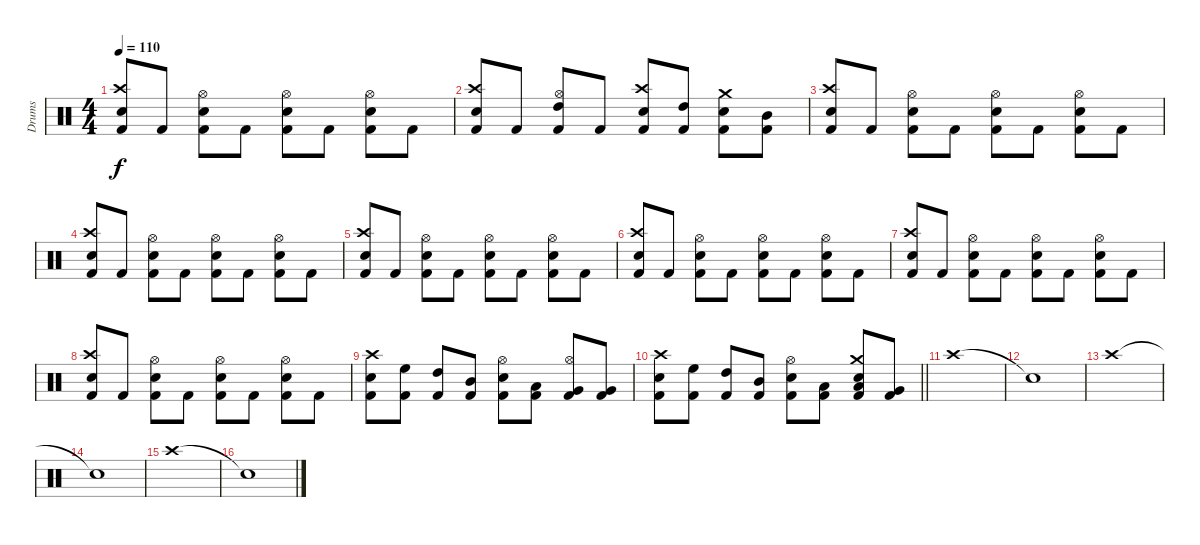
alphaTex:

\track ("Drums" "Drums") {instrument percussion}
\staff {score}
\articulation defaults
\ts (4 4)
\tempo 110
\clef neutral
\ks c
("Kick (hit) 2" "Crash high (hit)" "Snare (hit) 2").8{dy f} "Kick (hit) 2".8 ("Kick (hit) 2" "Hi-Hat (open)" "Snare (hit) 2").8 "Kick (hit) 2".8 ("Kick (hit) 2" "Hi-Hat (open)" "Snare (hit) 2").8 "Kick (hit) 2".8 ("Kick (hit) 2" "Hi-Hat (open)" "Snare (hit) 2").8 "Kick (hit) 2".8 |
("Kick (hit) 2" "Crash high (hit)" "Snare (hit) 2").8 "Kick (hit) 2".8 ("Kick (hit) 2" "Hi-Hat (open)" "High Tom (hit)").8 "Kick (hit) 2".8 ("Kick (hit) 2" "Crash high (hit)" "Snare (hit) 2").8 ("Kick (hit) 2" "High Tom (hit)").8 ("Kick (hit) 2" "Crash medium (hit)" "Snare (hit) 2").8 ("Kick (hit) 2" "Mid Tom (hit)").8 |
("Kick (hit) 2" "Crash high (hit)" "Snare (hit) 2").8 "Kick (hit) 2".8 ("Kick (hit) 2" "Hi-Hat (open)" "Snare (hit) 2").8 "Kick (hit) 2".8 ("Kick (hit) 2" "Hi-Hat (open)" "Snare (hit) 2").8 "Kick (hit) 2".8 ("Kick (hit) 2" "Hi-Hat (open)" "Snare (hit) 2").8 "Kick (hit) 2".8 |
("Kick (hit) 2" "Crash high (hit)" "Snare (hit) 2").8 "Kick (hit) 2".8 ("Kick (hit) 2" "Hi-Hat (open)" "Snare (hit) 2").8 "Kick (hit) 2".8 ("Kick (hit) 2" "Hi-Hat (open)" "Snare (hit) 2").8 "Kick (hit) 2".8 ("Kick (hit) 2" "Hi-Hat (open)" "Snare (hit) 2").8 "Kick (hit) 2".8 |
("Kick (hit) 2" "Crash high (hit)" "Snare (hit) 2").8 "Kick (hit) 2".8 ("Kick (hit) 2" "Hi-Hat (open)" "Snare (hit) 2").8 "Kick (hit) 2".8 ("Kick (hit) 2" "Hi-Hat (open)" "Snare (hit) 2").8 "Kick (hit) 2".8 ("Kick (hit) 2" "Hi-Hat (open)" "Snare (hit) 2").8 "Kick (hit) 2".8 |
("Kick (hit) 2" "Crash high (hit)" "Snare (hit) 2").8 "Kick (hit) 2".8 ("Kick (hit) 2" "Hi-Hat (open)" "Snare (hit) 2").8 "Kick (hit) 2".8 ("Kick (hit) 2" "Hi-Hat (open)" "Snare (hit) 2").8 "Kick (hit) 2".8 ("Kick (hit) 2" "Hi-Hat (open)" "Snare (hit) 2").8 "Kick (hit) 2".8 |
("Kick (hit) 2" "Crash high (hit)" "Snare (hit) 2").8 "Kick (hit) 2".8 ("Kick (hit) 2" "Hi-Hat (open)" "Snare (hit) 2").8 "Kick (hit) 2".8 ("Kick (hit) 2" "Hi-Hat (open)" "Snare (hit) 2").8 "Kick (hit) 2".8 ("Kick (hit) 2" "Hi-Hat (open)" "Snare (hit) 2").8 "Kick (hit) 2".8 |
("Kick (hit) 2" "Crash high (hit)" "Snare (hit) 2").8 "Kick (hit) 2".8 ("Kick (hit) 2" "Hi-Hat (open)" "Snare (hit) 2").8 "Kick (hit) 2".8 ("Kick (hit) 2" "Hi-Hat (open)" "Snare (hit) 2").8 "Kick (hit) 2".8 ("Kick (hit) 2" "Hi-Hat (open)" "Snare (hit) 2").8 "Kick (hit) 2".8 |
("Kick (hit) 2" "Crash high (hit)" "Snare (hit) 2").8 ("Kick (hit) 2" "High Floor Tom (hit)").8 ("Kick (hit) 2" "High Tom (hit)").8 ("Kick (hit) 2" "Mid Tom (hit)").8 ("Kick (hit) 2" "Hi-Hat (open)" "Snare (hit) 2").8 ("Kick (hit) 2" "Low Tom (hit)").8 ("Kick (hit) 2" "Hi-Hat (open)" "Very Low Tom (hit)").8 ("Kick (hit) 2" "Very Low Tom (hit)").8 |
\barLineRight lightlight
("Kick (hit) 2" "Crash high (hit)" "Snare (hit) 2").8 ("Kick (hit) 2" "High Floor Tom (hit)").8 ("Kick (hit) 2" "High Tom (hit)").8 ("Kick (hit) 2" "Mid Tom (hit)").8 ("Kick (hit) 2" "Hi-Hat (open)" "Snare (hit) 2").8 ("Kick (hit) 2" "Low Tom (hit)").8 ("Kick (hit) 2" "Crash medium (hit)" "Low Tom (hit)" "Snare (hit) 2").8 ("Kick (hit) 2" "Very Low Tom (hit)").8 |
\section ("" "")
"Crash high (hit)".1 |
"Snare (hit)"{t}.1 |
"Crash high (hit)".1 |
"Snare (hit)"{t}.1 |
"Crash high (hit)".1 |
"Snare (hit)"{t}.1
